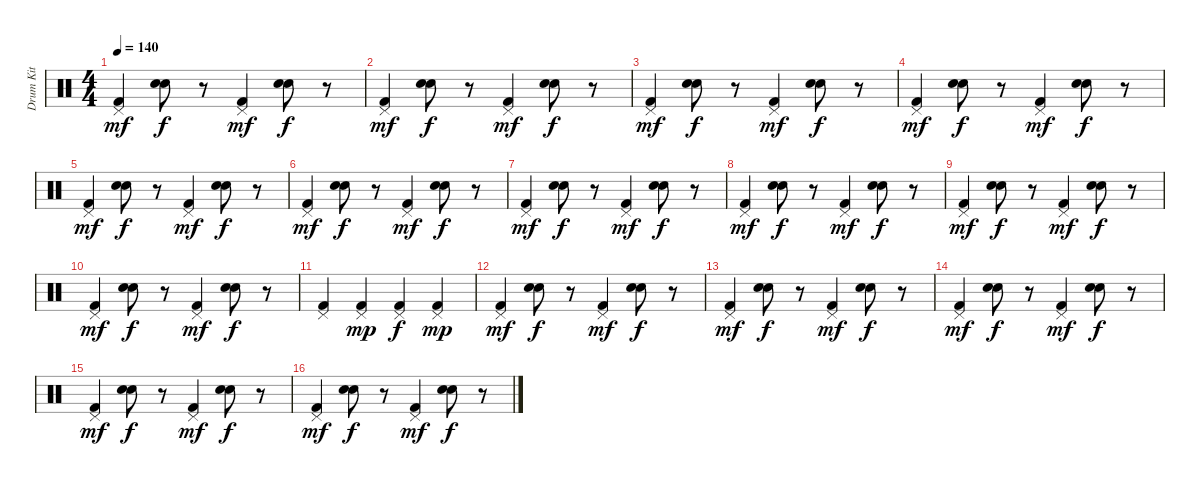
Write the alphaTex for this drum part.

\track ("Drum Kit" "Drum Kit") {instrument percussion}
\staff {score}
\articulation defaults
\ts (4 4)
\tempo 140
\clef neutral
\ks c
("Pedal Hi-Hat (hit)" "Kick (hit) 2").4{dy mf} ("Hand Clap (hit)" "Hand Clap (hit)").8{dy f} r.8 ("Pedal Hi-Hat (hit)" "Kick (hit) 2").4{dy mf} ("Hand Clap (hit)" "Hand Clap (hit)").8{dy f} r.8 |
("Pedal Hi-Hat (hit)" "Kick (hit) 2").4{dy mf} ("Hand Clap (hit)" "Hand Clap (hit)").8{dy f} r.8 ("Pedal Hi-Hat (hit)" "Kick (hit) 2").4{dy mf} ("Hand Clap (hit)" "Hand Clap (hit)").8{dy f} r.8 |
("Pedal Hi-Hat (hit)" "Kick (hit) 2").4{dy mf} ("Hand Clap (hit)" "Hand Clap (hit)").8{dy f} r.8 ("Pedal Hi-Hat (hit)" "Kick (hit) 2").4{dy mf} ("Hand Clap (hit)" "Hand Clap (hit)").8{dy f} r.8 |
("Pedal Hi-Hat (hit)" "Kick (hit) 2").4{dy mf} ("Hand Clap (hit)" "Hand Clap (hit)").8{dy f} r.8 ("Pedal Hi-Hat (hit)" "Kick (hit) 2").4{dy mf} ("Hand Clap (hit)" "Hand Clap (hit)").8{dy f} r.8 |
("Pedal Hi-Hat (hit)" "Kick (hit) 2").4{dy mf} ("Hand Clap (hit)" "Hand Clap (hit)").8{dy f} r.8 ("Pedal Hi-Hat (hit)" "Kick (hit) 2").4{dy mf} ("Hand Clap (hit)" "Hand Clap (hit)").8{dy f} r.8 |
("Pedal Hi-Hat (hit)" "Kick (hit) 2").4{dy mf} ("Hand Clap (hit)" "Hand Clap (hit)").8{dy f} r.8 ("Pedal Hi-Hat (hit)" "Kick (hit) 2").4{dy mf} ("Hand Clap (hit)" "Hand Clap (hit)").8{dy f} r.8 |
("Pedal Hi-Hat (hit)" "Kick (hit) 2").4{dy mf} ("Hand Clap (hit)" "Hand Clap (hit)").8{dy f} r.8 ("Pedal Hi-Hat (hit)" "Kick (hit) 2").4{dy mf} ("Hand Clap (hit)" "Hand Clap (hit)").8{dy f} r.8 |
("Pedal Hi-Hat (hit)" "Kick (hit) 2").4{dy mf} ("Hand Clap (hit)" "Hand Clap (hit)").8{dy f} r.8 ("Pedal Hi-Hat (hit)" "Kick (hit) 2").4{dy mf} ("Hand Clap (hit)" "Hand Clap (hit)").8{dy f} r.8 |
("Pedal Hi-Hat (hit)" "Kick (hit) 2").4{dy mf} ("Hand Clap (hit)" "Hand Clap (hit)").8{dy f} r.8 ("Pedal Hi-Hat (hit)" "Kick (hit) 2").4{dy mf} ("Hand Clap (hit)" "Hand Clap (hit)").8{dy f} r.8 |
("Pedal Hi-Hat (hit)" "Kick (hit) 2").4{dy mf} ("Hand Clap (hit)" "Hand Clap (hit)").8{dy f} r.8 ("Pedal Hi-Hat (hit)" "Kick (hit) 2").4{dy mf} ("Hand Clap (hit)" "Hand Clap (hit)").8{dy f} r.8 |
("Pedal Hi-Hat (hit)" "Kick (hit) 2").4 ("Pedal Hi-Hat (hit)" "Kick (hit) 2").4{dy mp} ("Pedal Hi-Hat (hit)" "Kick (hit) 2").4{dy f} ("Pedal Hi-Hat (hit)" "Kick (hit) 2").4{dy mp} |
("Pedal Hi-Hat (hit)" "Kick (hit) 2").4{dy mf} ("Hand Clap (hit)" "Hand Clap (hit)").8{dy f} r.8 ("Pedal Hi-Hat (hit)" "Kick (hit) 2").4{dy mf} ("Hand Clap (hit)" "Hand Clap (hit)").8{dy f} r.8 |
("Pedal Hi-Hat (hit)" "Kick (hit) 2").4{dy mf} ("Hand Clap (hit)" "Hand Clap (hit)").8{dy f} r.8 ("Pedal Hi-Hat (hit)" "Kick (hit) 2").4{dy mf} ("Hand Clap (hit)" "Hand Clap (hit)").8{dy f} r.8 |
("Pedal Hi-Hat (hit)" "Kick (hit) 2").4{dy mf} ("Hand Clap (hit)" "Hand Clap (hit)").8{dy f} r.8 ("Pedal Hi-Hat (hit)" "Kick (hit) 2").4{dy mf} ("Hand Clap (hit)" "Hand Clap (hit)").8{dy f} r.8 |
("Pedal Hi-Hat (hit)" "Kick (hit) 2").4{dy mf} ("Hand Clap (hit)" "Hand Clap (hit)").8{dy f} r.8 ("Pedal Hi-Hat (hit)" "Kick (hit) 2").4{dy mf} ("Hand Clap (hit)" "Hand Clap (hit)").8{dy f} r.8 |
("Pedal Hi-Hat (hit)" "Kick (hit) 2").4{dy mf} ("Hand Clap (hit)" "Hand Clap (hit)").8{dy f} r.8 ("Pedal Hi-Hat (hit)" "Kick (hit) 2").4{dy mf} ("Hand Clap (hit)" "Hand Clap (hit)").8{dy f} r.8
